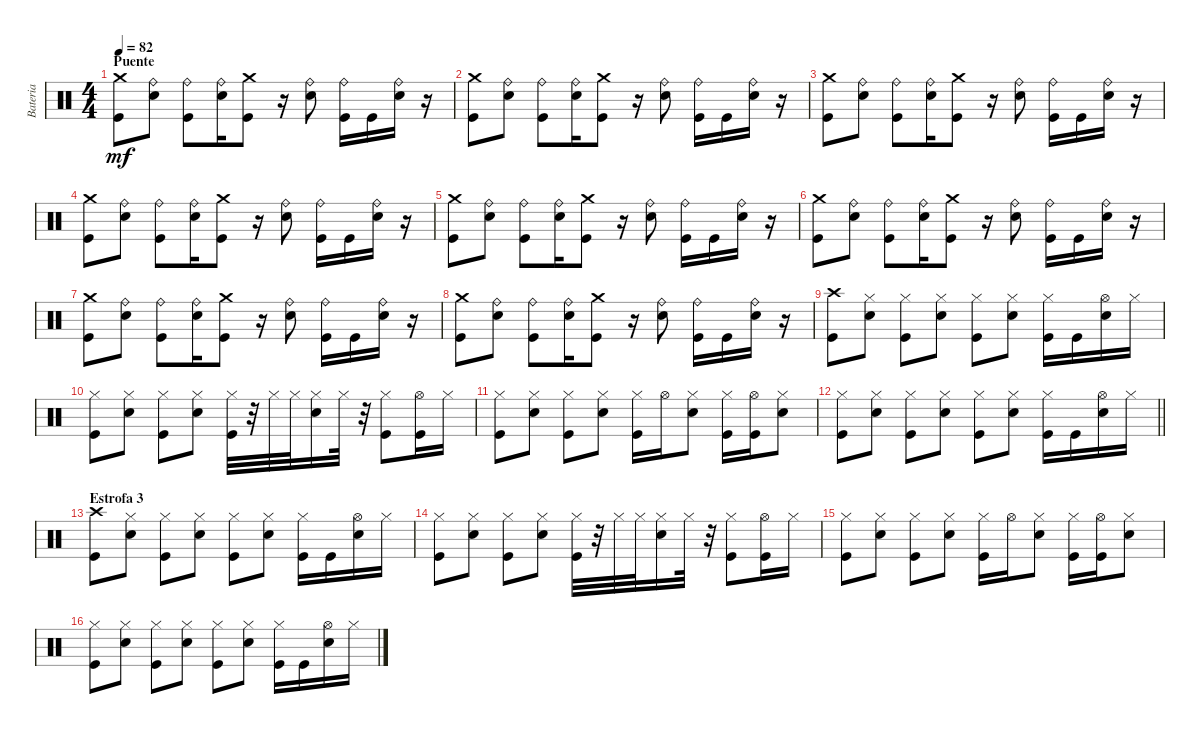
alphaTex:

\track ("Bateria" "Bateria") {instrument percussion}
\staff {score}
\articulation defaults
\ts (4 4)
\section ("" "Puente")
\tempo 82
\clef neutral
\ks c
("Kick (hit)" "Crash medium (hit)").8{dy mf} ("Snare (hit) 2" "Ride (bell)").8 ("Kick (hit)" "Ride (bell)").8 ("Snare (hit) 2" "Ride (bell)").16 ("Kick (hit)" "Crash medium (hit)").8 r.16 ("Snare (hit) 2" "Ride (bell)").8 ("Kick (hit)" "Ride (bell)").16 "Kick (hit)".16 ("Snare (hit) 2" "Ride (bell)").16 r.16 |
("Kick (hit)" "Crash medium (hit)").8 ("Snare (hit) 2" "Ride (bell)").8 ("Kick (hit)" "Ride (bell)").8 ("Snare (hit) 2" "Ride (bell)").16 ("Kick (hit)" "Crash medium (hit)").8 r.16 ("Snare (hit) 2" "Ride (bell)").8 ("Kick (hit)" "Ride (bell)").16 "Kick (hit)".16 ("Snare (hit) 2" "Ride (bell)").16 r.16 |
("Kick (hit)" "Crash medium (hit)").8 ("Snare (hit) 2" "Ride (bell)").8 ("Kick (hit)" "Ride (bell)").8 ("Snare (hit) 2" "Ride (bell)").16 ("Kick (hit)" "Crash medium (hit)").8 r.16 ("Snare (hit) 2" "Ride (bell)").8 ("Kick (hit)" "Ride (bell)").16 "Kick (hit)".16 ("Snare (hit) 2" "Ride (bell)").16 r.16 |
("Kick (hit)" "Crash medium (hit)").8 ("Snare (hit) 2" "Ride (bell)").8 ("Kick (hit)" "Ride (bell)").8 ("Snare (hit) 2" "Ride (bell)").16 ("Kick (hit)" "Crash medium (hit)").8 r.16 ("Snare (hit) 2" "Ride (bell)").8 ("Kick (hit)" "Ride (bell)").16 "Kick (hit)".16 ("Snare (hit) 2" "Ride (bell)").16 r.16 |
("Kick (hit)" "Crash medium (hit)").8 ("Snare (hit) 2" "Ride (bell)").8 ("Kick (hit)" "Ride (bell)").8 ("Snare (hit) 2" "Ride (bell)").16 ("Kick (hit)" "Crash medium (hit)").8 r.16 ("Snare (hit) 2" "Ride (bell)").8 ("Kick (hit)" "Ride (bell)").16 "Kick (hit)".16 ("Snare (hit) 2" "Ride (bell)").16 r.16 |
("Kick (hit)" "Crash medium (hit)").8 ("Snare (hit) 2" "Ride (bell)").8 ("Kick (hit)" "Ride (bell)").8 ("Snare (hit) 2" "Ride (bell)").16 ("Kick (hit)" "Crash medium (hit)").8 r.16 ("Snare (hit) 2" "Ride (bell)").8 ("Kick (hit)" "Ride (bell)").16 "Kick (hit)".16 ("Snare (hit) 2" "Ride (bell)").16 r.16 |
("Kick (hit)" "Crash medium (hit)").8 ("Snare (hit) 2" "Ride (bell)").8 ("Kick (hit)" "Ride (bell)").8 ("Snare (hit) 2" "Ride (bell)").16 ("Kick (hit)" "Crash medium (hit)").8 r.16 ("Snare (hit) 2" "Ride (bell)").8 ("Kick (hit)" "Ride (bell)").16 "Kick (hit)".16 ("Snare (hit) 2" "Ride (bell)").16 r.16 |
("Kick (hit)" "Crash medium (hit)").8 ("Snare (hit) 2" "Ride (bell)").8 ("Kick (hit)" "Ride (bell)").8 ("Snare (hit) 2" "Ride (bell)").16 ("Kick (hit)" "Crash medium (hit)").8 r.16 ("Snare (hit) 2" "Ride (bell)").8 ("Kick (hit)" "Ride (bell)").16 "Kick (hit)".16 ("Snare (hit) 2" "Ride (bell)").16 r.16 |
("Crash high (hit)" "Kick (hit)").8 ("Snare (hit) 2" "Hi-Hat (closed)").8 ("Kick (hit)" "Hi-Hat (closed)").8 ("Hi-Hat (closed)" "Snare (hit) 2").8 ("Kick (hit)" "Hi-Hat (closed)").8 ("Snare (hit) 2" "Hi-Hat (closed)").8 ("Kick (hit)" "Hi-Hat (closed)").16 "Kick (hit)".16 ("Hi-Hat (open)" "Snare (hit) 2").16 "Hi-Hat (closed)".16 |
("Kick (hit)" "Hi-Hat (closed)").8 ("Snare (hit) 2" "Hi-Hat (closed)").8 ("Kick (hit)" "Hi-Hat (closed)").8 ("Hi-Hat (closed)" "Snare (hit) 2").8 ("Kick (hit)" "Hi-Hat (closed)").32 r.32 "Hi-Hat (closed)".32 "Hi-Hat (closed)".32 ("Hi-Hat (closed)" "Snare (hit) 2").16 "Hi-Hat (closed)".32 r.32 ("Kick (hit)" "Hi-Hat (closed)").8 ("Kick (hit)" "Hi-Hat (open)").16 "Hi-Hat (closed)".16 |
("Kick (hit)" "Hi-Hat (closed)").8 ("Snare (hit) 2" "Hi-Hat (closed)").8 ("Kick (hit)" "Hi-Hat (closed)").8 ("Hi-Hat (closed)" "Snare (hit) 2").8 ("Kick (hit)" "Hi-Hat (closed)").16 "Hi-Hat (open)".16 ("Snare (hit) 2" "Hi-Hat (closed)").8 ("Kick (hit)" "Hi-Hat (closed)").16 ("Kick (hit)" "Hi-Hat (open)").16 ("Hi-Hat (closed)" "Snare (hit) 2").8 |
\barLineRight lightlight
("Kick (hit)" "Hi-Hat (closed)").8 ("Snare (hit) 2" "Hi-Hat (closed)").8 ("Kick (hit)" "Hi-Hat (closed)").8 ("Hi-Hat (closed)" "Snare (hit) 2").8 ("Kick (hit)" "Hi-Hat (closed)").8 ("Snare (hit) 2" "Hi-Hat (closed)").8 ("Kick (hit)" "Hi-Hat (closed)").16 "Kick (hit)".16 ("Hi-Hat (open)" "Snare (hit) 2").16 "Hi-Hat (closed)".16 |
\section ("" "Estrofa 3")
("Crash high (hit)" "Kick (hit)").8 ("Snare (hit) 2" "Hi-Hat (closed)").8 ("Kick (hit)" "Hi-Hat (closed)").8 ("Hi-Hat (closed)" "Snare (hit) 2").8 ("Kick (hit)" "Hi-Hat (closed)").8 ("Snare (hit) 2" "Hi-Hat (closed)").8 ("Kick (hit)" "Hi-Hat (closed)").16 "Kick (hit)".16 ("Hi-Hat (open)" "Snare (hit) 2").16 "Hi-Hat (closed)".16 |
("Kick (hit)" "Hi-Hat (closed)").8 ("Snare (hit) 2" "Hi-Hat (closed)").8 ("Kick (hit)" "Hi-Hat (closed)").8 ("Hi-Hat (closed)" "Snare (hit) 2").8 ("Kick (hit)" "Hi-Hat (closed)").32 r.32 "Hi-Hat (closed)".32 "Hi-Hat (closed)".32 ("Hi-Hat (closed)" "Snare (hit) 2").16 "Hi-Hat (closed)".32 r.32 ("Kick (hit)" "Hi-Hat (closed)").8 ("Kick (hit)" "Hi-Hat (open)").16 "Hi-Hat (closed)".16 |
("Kick (hit)" "Hi-Hat (closed)").8 ("Snare (hit) 2" "Hi-Hat (closed)").8 ("Kick (hit)" "Hi-Hat (closed)").8 ("Hi-Hat (closed)" "Snare (hit) 2").8 ("Kick (hit)" "Hi-Hat (closed)").16 "Hi-Hat (open)".16 ("Snare (hit) 2" "Hi-Hat (closed)").8 ("Kick (hit)" "Hi-Hat (closed)").16 ("Kick (hit)" "Hi-Hat (open)").16 ("Hi-Hat (closed)" "Snare (hit) 2").8 |
("Kick (hit)" "Hi-Hat (closed)").8 ("Snare (hit) 2" "Hi-Hat (closed)").8 ("Kick (hit)" "Hi-Hat (closed)").8 ("Hi-Hat (closed)" "Snare (hit) 2").8 ("Kick (hit)" "Hi-Hat (closed)").8 ("Snare (hit) 2" "Hi-Hat (closed)").8 ("Kick (hit)" "Hi-Hat (closed)").16 "Kick (hit)".16 ("Hi-Hat (open)" "Snare (hit) 2").16 "Hi-Hat (closed)".16
